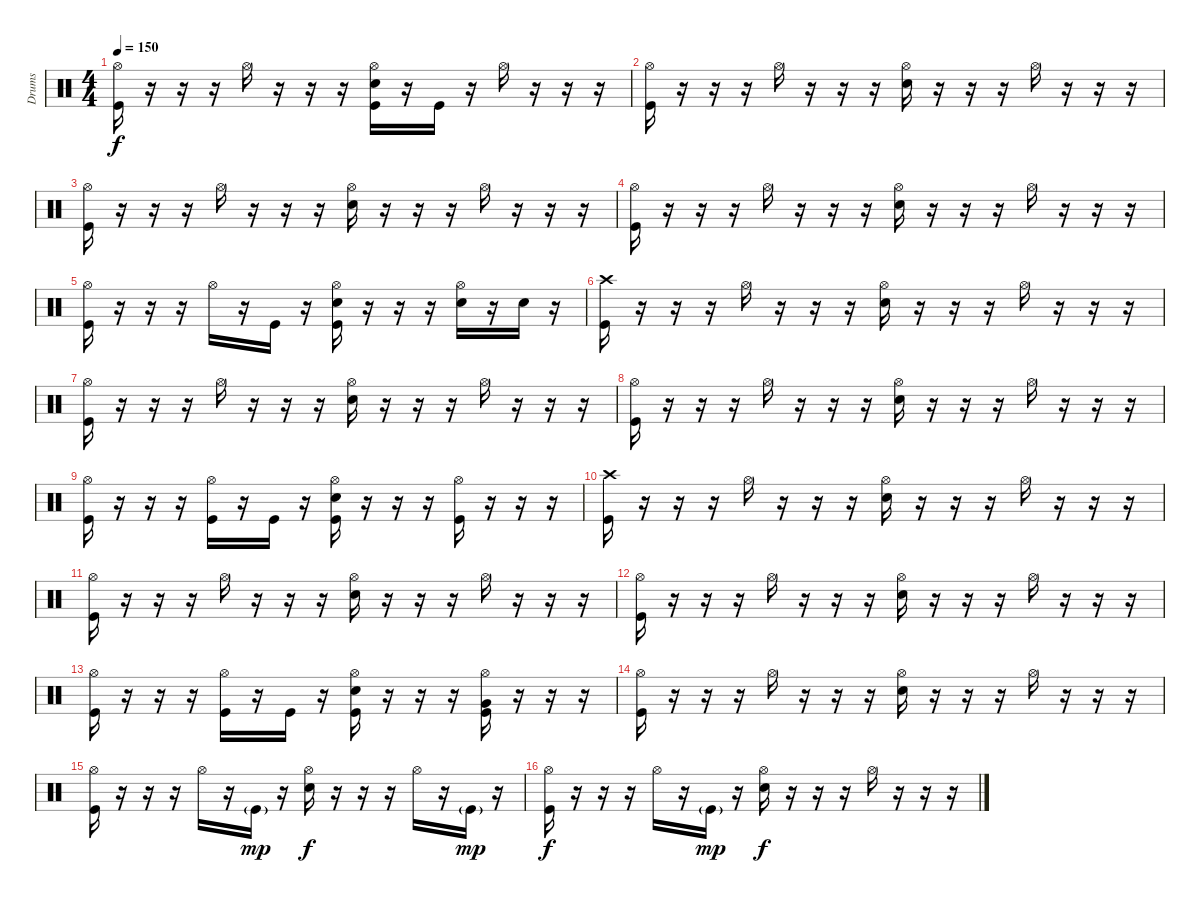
\track ("Drums" "Drums") {instrument percussion}
\staff {score}
\articulation defaults
\ts (4 4)
\tempo 150
\clef neutral
\ks c
("Hi-Hat (open)" "Kick (hit)").16{dy f} r.16 r.16 r.16 "Hi-Hat (open)".16 r.16 r.16 r.16 ("Hi-Hat (open)" "Snare (hit) 2" "Kick (hit)").16 r.16 "Kick (hit)".16 r.16 "Hi-Hat (open)".16 r.16 r.16 r.16 |
("Hi-Hat (open)" "Kick (hit)").16 r.16 r.16 r.16 "Hi-Hat (open)".16 r.16 r.16 r.16 ("Hi-Hat (open)" "Snare (hit) 2").16 r.16 r.16 r.16 "Hi-Hat (open)".16 r.16 r.16 r.16 |
("Hi-Hat (open)" "Kick (hit)").16 r.16 r.16 r.16 "Hi-Hat (open)".16 r.16 r.16 r.16 ("Hi-Hat (open)" "Snare (hit) 2").16 r.16 r.16 r.16 "Hi-Hat (open)".16 r.16 r.16 r.16 |
("Hi-Hat (open)" "Kick (hit)").16 r.16 r.16 r.16 "Hi-Hat (open)".16 r.16 r.16 r.16 ("Hi-Hat (open)" "Snare (hit) 2").16 r.16 r.16 r.16 "Hi-Hat (open)".16 r.16 r.16 r.16 |
("Hi-Hat (open)" "Kick (hit)").16 r.16 r.16 r.16 "Hi-Hat (open)".16 r.16 "Kick (hit)".16 r.16 ("Hi-Hat (open)" "Snare (hit) 2" "Kick (hit)").16 r.16 r.16 r.16 ("Hi-Hat (open)" "Snare (hit) 2").16 r.16 "Snare (hit) 2".16 r.16 |
("Crash high (hit)" "Kick (hit)").16 r.16 r.16 r.16 "Hi-Hat (open)".16 r.16 r.16 r.16 ("Hi-Hat (open)" "Snare (hit) 2").16 r.16 r.16 r.16 "Hi-Hat (open)".16 r.16 r.16 r.16 |
("Hi-Hat (open)" "Kick (hit)").16 r.16 r.16 r.16 "Hi-Hat (open)".16 r.16 r.16 r.16 ("Hi-Hat (open)" "Snare (hit) 2").16 r.16 r.16 r.16 "Hi-Hat (open)".16 r.16 r.16 r.16 |
("Hi-Hat (open)" "Kick (hit)").16 r.16 r.16 r.16 "Hi-Hat (open)".16 r.16 r.16 r.16 ("Hi-Hat (open)" "Snare (hit) 2").16 r.16 r.16 r.16 "Hi-Hat (open)".16 r.16 r.16 r.16 |
("Hi-Hat (open)" "Kick (hit)").16 r.16 r.16 r.16 ("Hi-Hat (open)" "Kick (hit)").16 r.16 "Kick (hit)".16 r.16 ("Hi-Hat (open)" "Snare (hit) 2" "Kick (hit)").16 r.16 r.16 r.16 ("Hi-Hat (open)" "Kick (hit)").16 r.16 r.16 r.16 |
("Crash high (hit)" "Kick (hit)").16 r.16 r.16 r.16 "Hi-Hat (open)".16 r.16 r.16 r.16 ("Hi-Hat (open)" "Snare (hit) 2").16 r.16 r.16 r.16 "Hi-Hat (open)".16 r.16 r.16 r.16 |
("Hi-Hat (open)" "Kick (hit)").16 r.16 r.16 r.16 "Hi-Hat (open)".16 r.16 r.16 r.16 ("Hi-Hat (open)" "Snare (hit) 2").16 r.16 r.16 r.16 "Hi-Hat (open)".16 r.16 r.16 r.16 |
("Hi-Hat (open)" "Kick (hit)").16 r.16 r.16 r.16 "Hi-Hat (open)".16 r.16 r.16 r.16 ("Hi-Hat (open)" "Snare (hit) 2").16 r.16 r.16 r.16 "Hi-Hat (open)".16 r.16 r.16 r.16 |
("Hi-Hat (open)" "Kick (hit)").16 r.16 r.16 r.16 ("Hi-Hat (open)" "Kick (hit)").16 r.16 "Kick (hit)".16 r.16 ("Hi-Hat (open)" "Snare (hit) 2" "Kick (hit)").16 r.16 r.16 r.16 ("Hi-Hat (open)" "Very Low Tom (hit)" "Kick (hit)").16 r.16 r.16 r.16 |
("Hi-Hat (open)" "Kick (hit)").16 r.16 r.16 r.16 "Hi-Hat (open)".16 r.16 r.16 r.16 ("Hi-Hat (open)" "Snare (hit) 2").16 r.16 r.16 r.16 "Hi-Hat (open)".16 r.16 r.16 r.16 |
("Hi-Hat (open)" "Kick (hit)").16 r.16 r.16 r.16 "Hi-Hat (open)".16 r.16 "Kick (hit)"{g}.16{dy mp} r.16 ("Hi-Hat (open)" "Snare (hit) 2").16{dy f} r.16 r.16 r.16 "Hi-Hat (open)".16 r.16 "Kick (hit)"{g}.16{dy mp} r.16 |
("Hi-Hat (open)" "Kick (hit)").16{dy f} r.16 r.16 r.16 "Hi-Hat (open)".16 r.16 "Kick (hit)"{g}.16{dy mp} r.16 ("Hi-Hat (open)" "Snare (hit) 2").16{dy f} r.16 r.16 r.16 "Hi-Hat (open)".16 r.16 r.16 r.16
